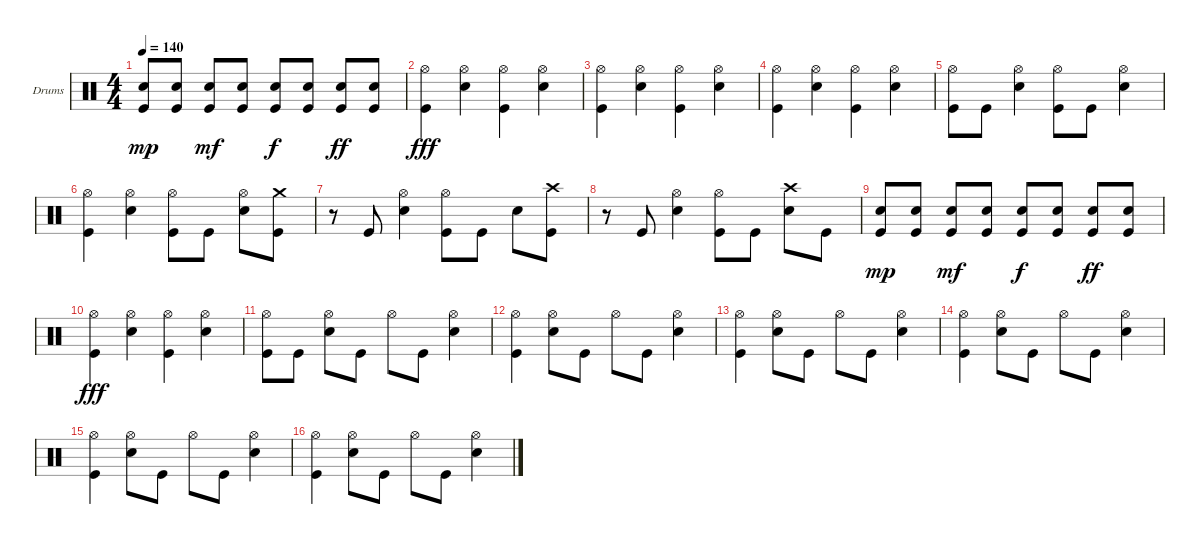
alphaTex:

\bracketExtendMode groupsimilarinstruments
\firstSystemTrackNameOrientation horizontal
\otherSystemsTrackNameOrientation horizontal
\track ("Drumkit" "Drums") {instrument percussion}
\staff {score}
\articulation defaults
\ts (4 4)
\tempo 140
\clef neutral
\ks c
("Kick (hit)" "Snare (hit) 2").8{dy mp} ("Kick (hit)" "Snare (hit) 2").8 ("Kick (hit)" "Snare (hit) 2").8{dy mf} ("Kick (hit)" "Snare (hit) 2").8 ("Kick (hit)" "Snare (hit) 2").8{dy f} ("Kick (hit)" "Snare (hit) 2").8 ("Kick (hit)" "Snare (hit) 2").8{dy ff} ("Kick (hit)" "Snare (hit) 2").8 |
("Kick (hit)" "Hi-Hat (open)").4{dy fff} ("Snare (hit) 2" "Hi-Hat (open)").4 ("Kick (hit)" "Hi-Hat (open)").4 ("Snare (hit) 2" "Hi-Hat (open)").4 |
("Kick (hit)" "Hi-Hat (open)").4 ("Snare (hit) 2" "Hi-Hat (open)").4 ("Kick (hit)" "Hi-Hat (open)").4 ("Snare (hit) 2" "Hi-Hat (open)").4 |
("Kick (hit)" "Hi-Hat (open)").4 ("Snare (hit) 2" "Hi-Hat (open)").4 ("Kick (hit)" "Hi-Hat (open)").4 ("Snare (hit) 2" "Hi-Hat (open)").4 |
("Kick (hit)" "Hi-Hat (open)").8 "Kick (hit)".8 ("Snare (hit) 2" "Hi-Hat (open)").4 ("Kick (hit)" "Hi-Hat (open)").8 "Kick (hit)".8 ("Snare (hit) 2" "Hi-Hat (open)").4 |
("Kick (hit)" "Hi-Hat (open)").4 ("Snare (hit) 2" "Hi-Hat (open)").4 ("Kick (hit)" "Hi-Hat (open)").8 "Kick (hit)".8 ("Snare (hit) 2" "Hi-Hat (open)").8 ("Kick (hit)" "Crash medium (hit)").8 |
r.8 "Kick (hit)".8 ("Snare (hit) 2" "Hi-Hat (open)").4 ("Kick (hit)" "Hi-Hat (open)").8 "Kick (hit)".8 "Snare (hit) 2".8 ("Kick (hit)" "Crash high (hit)").8 |
r.8 "Kick (hit)".8 ("Snare (hit) 2" "Hi-Hat (open)").4 ("Kick (hit)" "Hi-Hat (open)").8 "Kick (hit)".8 ("Snare (hit) 2" "Crash high (hit)").8 "Kick (hit)".8 |
("Kick (hit)" "Snare (hit) 2").8{dy mp} ("Kick (hit)" "Snare (hit) 2").8 ("Kick (hit)" "Snare (hit) 2").8{dy mf} ("Kick (hit)" "Snare (hit) 2").8 ("Kick (hit)" "Snare (hit) 2").8{dy f} ("Kick (hit)" "Snare (hit) 2").8 ("Kick (hit)" "Snare (hit) 2").8{dy ff} ("Kick (hit)" "Snare (hit) 2").8 |
("Kick (hit)" "Hi-Hat (open)").4{dy fff} ("Snare (hit) 2" "Hi-Hat (open)").4 ("Kick (hit)" "Hi-Hat (open)").4 ("Snare (hit) 2" "Hi-Hat (open)").4 |
("Kick (hit)" "Hi-Hat (open)").8 "Kick (hit)".8 ("Snare (hit) 2" "Hi-Hat (open)").8 "Kick (hit)".8 "Hi-Hat (open)".8 "Kick (hit)".8 ("Snare (hit) 2" "Hi-Hat (open)").4 |
("Kick (hit)" "Hi-Hat (open)").4 ("Snare (hit) 2" "Hi-Hat (open)").8 "Kick (hit)".8 "Hi-Hat (open)".8 "Kick (hit)".8 ("Snare (hit) 2" "Hi-Hat (open)").4 |
("Kick (hit)" "Hi-Hat (open)").4 ("Snare (hit) 2" "Hi-Hat (open)").8 "Kick (hit)".8 "Hi-Hat (open)".8 "Kick (hit)".8 ("Snare (hit) 2" "Hi-Hat (open)").4 |
("Kick (hit)" "Hi-Hat (open)").4 ("Snare (hit) 2" "Hi-Hat (open)").8 "Kick (hit)".8 "Hi-Hat (open)".8 "Kick (hit)".8 ("Snare (hit) 2" "Hi-Hat (open)").4 |
("Kick (hit)" "Hi-Hat (open)").4 ("Snare (hit) 2" "Hi-Hat (open)").8 "Kick (hit)".8 "Hi-Hat (open)".8 "Kick (hit)".8 ("Snare (hit) 2" "Hi-Hat (open)").4 |
("Kick (hit)" "Hi-Hat (open)").4 ("Snare (hit) 2" "Hi-Hat (open)").8 "Kick (hit)".8 "Hi-Hat (open)".8 "Kick (hit)".8 ("Snare (hit) 2" "Hi-Hat (open)").4
